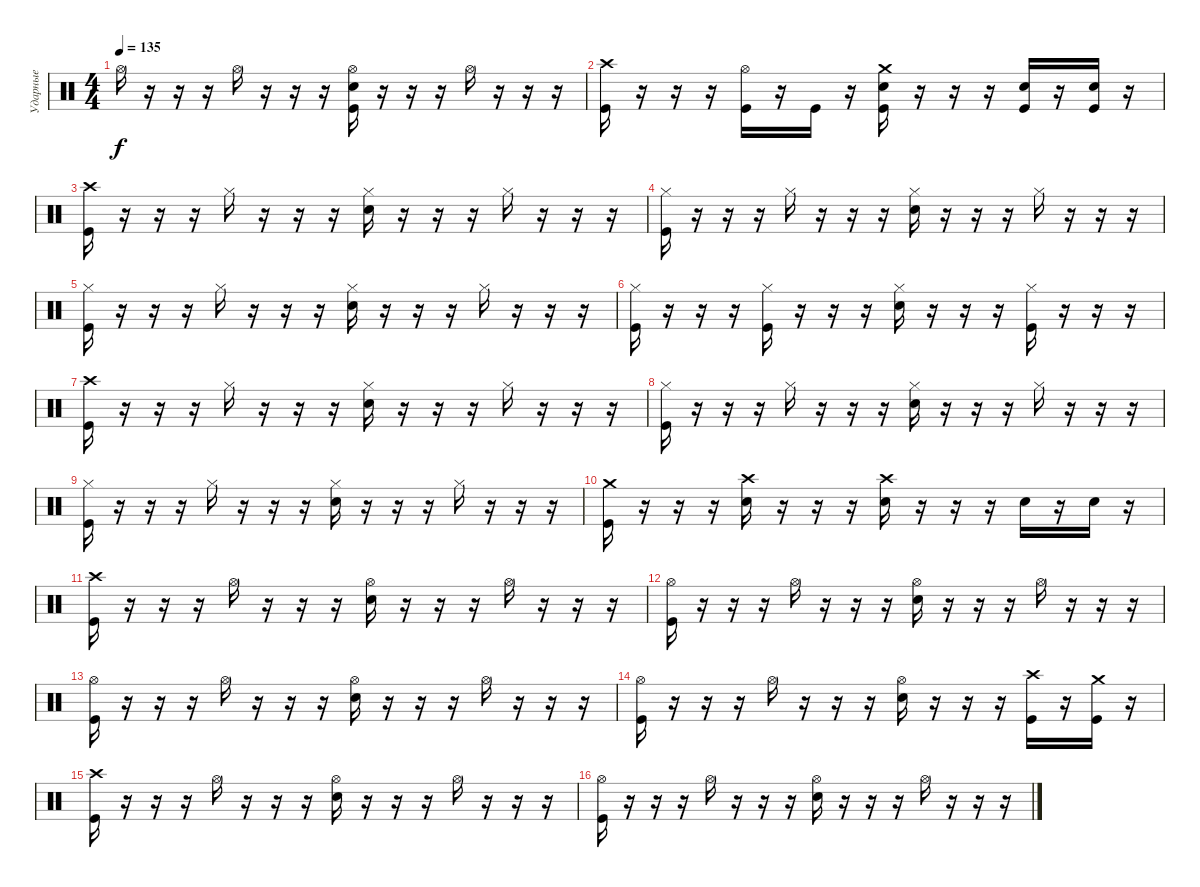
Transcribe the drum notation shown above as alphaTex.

\track ("Ударные" "Ударные") {instrument percussion}
\staff {score}
\articulation defaults
\ts (4 4)
\tempo 135
\clef neutral
\ks c "Hi-Hat (open)".16{dy f}
r.16 r.16 r.16 "Hi-Hat (open)".16 r.16 r.16 r.16 ("Hi-Hat (open)" "Electric Snare (hit)" "Kick (hit)").16 r.16 r.16 r.16 "Hi-Hat (open)".16 r.16 r.16 r.16 |
("Crash high (hit)" "Kick (hit)").16 r.16 r.16 r.16 ("Hi-Hat (open)" "Kick (hit)").16 r.16 "Kick (hit)".16 r.16 ("Crash medium (hit)" "Electric Snare (hit)" "Kick (hit)").16 r.16 r.16 r.16 ("Electric Snare (hit)" "Kick (hit)").16 r.16 ("Electric Snare (hit)" "Kick (hit)").16 r.16 |
("Crash high (hit)" "Kick (hit)").16 r.16 r.16 r.16 "Hi-Hat (closed)".16 r.16 r.16 r.16 ("Hi-Hat (closed)" "Electric Snare (hit)").16 r.16 r.16 r.16 "Hi-Hat (closed)".16 r.16 r.16 r.16 |
("Hi-Hat (closed)" "Kick (hit)").16 r.16 r.16 r.16 "Hi-Hat (closed)".16 r.16 r.16 r.16 ("Hi-Hat (closed)" "Electric Snare (hit)").16 r.16 r.16 r.16 "Hi-Hat (closed)".16 r.16 r.16 r.16 |
("Hi-Hat (closed)" "Kick (hit)").16 r.16 r.16 r.16 "Hi-Hat (closed)".16 r.16 r.16 r.16 ("Hi-Hat (closed)" "Electric Snare (hit)").16 r.16 r.16 r.16 "Hi-Hat (closed)".16 r.16 r.16 r.16 |
("Hi-Hat (closed)" "Kick (hit)").16 r.16 r.16 r.16 ("Hi-Hat (closed)" "Kick (hit)").16 r.16 r.16 r.16 ("Hi-Hat (closed)" "Electric Snare (hit)").16 r.16 r.16 r.16 ("Hi-Hat (closed)" "Kick (hit)").16 r.16 r.16 r.16 |
("Crash high (hit)" "Kick (hit)").16 r.16 r.16 r.16 "Hi-Hat (closed)".16 r.16 r.16 r.16 ("Hi-Hat (closed)" "Electric Snare (hit)").16 r.16 r.16 r.16 "Hi-Hat (closed)".16 r.16 r.16 r.16 |
("Hi-Hat (closed)" "Kick (hit)").16 r.16 r.16 r.16 "Hi-Hat (closed)".16 r.16 r.16 r.16 ("Hi-Hat (closed)" "Electric Snare (hit)").16 r.16 r.16 r.16 "Hi-Hat (closed)".16 r.16 r.16 r.16 |
("Hi-Hat (closed)" "Kick (hit)").16 r.16 r.16 r.16 "Hi-Hat (closed)".16 r.16 r.16 r.16 ("Hi-Hat (closed)" "Electric Snare (hit)").16 r.16 r.16 r.16 "Hi-Hat (closed)".16 r.16 r.16 r.16 |
("Crash medium (hit)" "Kick (hit)").16 r.16 r.16 r.16 ("Crash high (hit)" "Electric Snare (hit)").16 r.16 r.16 r.16 ("Crash high (hit)" "Electric Snare (hit)").16 r.16 r.16 r.16 "Electric Snare (hit)".16 r.16 "Electric Snare (hit)".16 r.16 |
("Crash high (hit)" "Kick (hit)").16 r.16 r.16 r.16 "Hi-Hat (open)".16 r.16 r.16 r.16 ("Hi-Hat (open)" "Electric Snare (hit)").16 r.16 r.16 r.16 "Hi-Hat (open)".16 r.16 r.16 r.16 |
("Hi-Hat (open)" "Kick (hit)").16 r.16 r.16 r.16 "Hi-Hat (open)".16 r.16 r.16 r.16 ("Hi-Hat (open)" "Electric Snare (hit)").16 r.16 r.16 r.16 "Hi-Hat (open)".16 r.16 r.16 r.16 |
("Hi-Hat (open)" "Kick (hit)").16 r.16 r.16 r.16 "Hi-Hat (open)".16 r.16 r.16 r.16 ("Hi-Hat (open)" "Electric Snare (hit)").16 r.16 r.16 r.16 "Hi-Hat (open)".16 r.16 r.16 r.16 |
("Hi-Hat (open)" "Kick (hit)").16 r.16 r.16 r.16 "Hi-Hat (open)".16 r.16 r.16 r.16 ("Hi-Hat (open)" "Electric Snare (hit)").16 r.16 r.16 r.16 ("Crash high (hit)" "Kick (hit)").16 r.16 ("Crash medium (hit)" "Kick (hit)").16 r.16 |
("Crash high (hit)" "Kick (hit)").16 r.16 r.16 r.16 "Hi-Hat (open)".16 r.16 r.16 r.16 ("Hi-Hat (open)" "Electric Snare (hit)").16 r.16 r.16 r.16 "Hi-Hat (open)".16 r.16 r.16 r.16 |
("Hi-Hat (open)" "Kick (hit)").16 r.16 r.16 r.16 "Hi-Hat (open)".16 r.16 r.16 r.16 ("Hi-Hat (open)" "Electric Snare (hit)").16 r.16 r.16 r.16 "Hi-Hat (open)".16 r.16 r.16 r.16
